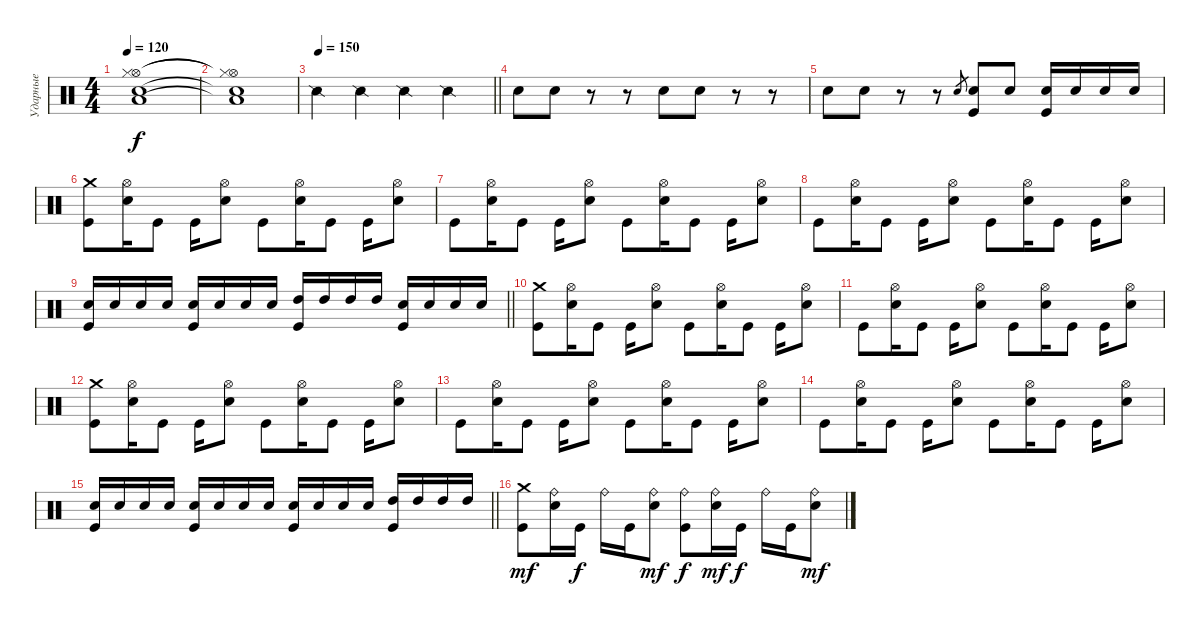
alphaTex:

\track ("Ударные" "Ударные") {instrument percussion}
\staff {score}
\articulation defaults
\ts (4 4)
\tempo 120
\clef neutral
\ks c
("Hi-Hat (open)" "Low Tom (hit)" "Snare (hit) 2" "Hi-Hat (closed)").1{dy f} |
("Hi-Hat (open)"{t} "Low Tom (hit)"{t} "Snare (hit) 2"{t} "Hi-Hat (closed)"{t}).1 |
\tempo 150
\barLineRight lightlight "Snare (side stick) 2".4 "Snare (side stick) 2".4 "Snare (side stick) 2".4 "Snare (side stick) 2".4
|
"Electric Snare (hit)".8 "Electric Snare (hit)".8 r.8 r.8 "Electric Snare (hit)".8 "Electric Snare (hit)".8 r.8 r.8 |
"Electric Snare (hit)".8 "Electric Snare (hit)".8 r.8 r.8 "Electric Snare (hit)".8{gr} ("Electric Snare (hit)" "Kick (hit)").8 "Electric Snare (hit)".8 ("Electric Snare (hit)" "Kick (hit)").16 "Electric Snare (hit)".16 "Electric Snare (hit)".16 "Electric Snare (hit)".16 |
("Crash medium (hit)" "Kick (hit)").8 ("Hi-Hat (open)" "Electric Snare (hit)").16 "Kick (hit)".8 "Kick (hit)".16 ("Hi-Hat (open)" "Electric Snare (hit)").8 "Kick (hit)".8 ("Hi-Hat (open)" "Electric Snare (hit)").16 "Kick (hit)".8 "Kick (hit)".16 ("Hi-Hat (open)" "Electric Snare (hit)").8 |
"Kick (hit)".8 ("Hi-Hat (open)" "Electric Snare (hit)").16 "Kick (hit)".8 "Kick (hit)".16 ("Hi-Hat (open)" "Electric Snare (hit)").8 "Kick (hit)".8 ("Hi-Hat (open)" "Electric Snare (hit)").16 "Kick (hit)".8 "Kick (hit)".16 ("Hi-Hat (open)" "Electric Snare (hit)").8 |
"Kick (hit)".8 ("Hi-Hat (open)" "Electric Snare (hit)").16 "Kick (hit)".8 "Kick (hit)".16 ("Hi-Hat (open)" "Electric Snare (hit)").8 "Kick (hit)".8 ("Hi-Hat (open)" "Electric Snare (hit)").16 "Kick (hit)".8 "Kick (hit)".16 ("Hi-Hat (open)" "Electric Snare (hit)").8 |
\barLineRight lightlight
("Electric Snare (hit)" "Kick (hit)").16 "Electric Snare (hit)".16 "Electric Snare (hit)".16 "Electric Snare (hit)".16 ("Electric Snare (hit)" "Kick (hit)").16 "Electric Snare (hit)".16 "Electric Snare (hit)".16 "Electric Snare (hit)".16 ("High Tom (hit)" "Kick (hit)").16 "High Tom (hit)".16 "High Tom (hit)".16 "High Tom (hit)".16 ("Electric Snare (hit)" "Kick (hit)").16 "Electric Snare (hit)".16 "Electric Snare (hit)".16 "Electric Snare (hit)".16 |
("Crash medium (hit)" "Kick (hit)").8 ("Hi-Hat (open)" "Electric Snare (hit)").16 "Kick (hit)".8 "Kick (hit)".16 ("Hi-Hat (open)" "Electric Snare (hit)").8 "Kick (hit)".8 ("Hi-Hat (open)" "Electric Snare (hit)").16 "Kick (hit)".8 "Kick (hit)".16 ("Hi-Hat (open)" "Electric Snare (hit)").8 |
"Kick (hit)".8 ("Hi-Hat (open)" "Electric Snare (hit)").16 "Kick (hit)".8 "Kick (hit)".16 ("Hi-Hat (open)" "Electric Snare (hit)").8 "Kick (hit)".8 ("Hi-Hat (open)" "Electric Snare (hit)").16 "Kick (hit)".8 "Kick (hit)".16 ("Hi-Hat (open)" "Electric Snare (hit)").8 |
("Crash medium (hit)" "Kick (hit)").8 ("Hi-Hat (open)" "Electric Snare (hit)").16 "Kick (hit)".8 "Kick (hit)".16 ("Hi-Hat (open)" "Electric Snare (hit)").8 "Kick (hit)".8 ("Hi-Hat (open)" "Electric Snare (hit)").16 "Kick (hit)".8 "Kick (hit)".16 ("Hi-Hat (open)" "Electric Snare (hit)").8 |
"Kick (hit)".8 ("Hi-Hat (open)" "Electric Snare (hit)").16 "Kick (hit)".8 "Kick (hit)".16 ("Hi-Hat (open)" "Electric Snare (hit)").8 "Kick (hit)".8 ("Hi-Hat (open)" "Electric Snare (hit)").16 "Kick (hit)".8 "Kick (hit)".16 ("Hi-Hat (open)" "Electric Snare (hit)").8 |
"Kick (hit)".8 ("Hi-Hat (open)" "Electric Snare (hit)").16 "Kick (hit)".8 "Kick (hit)".16 ("Hi-Hat (open)" "Electric Snare (hit)").8 "Kick (hit)".8 ("Hi-Hat (open)" "Electric Snare (hit)").16 "Kick (hit)".8 "Kick (hit)".16 ("Hi-Hat (open)" "Electric Snare (hit)").8 |
\barLineRight lightlight
("Electric Snare (hit)" "Kick (hit)").16 "Electric Snare (hit)".16 "Electric Snare (hit)".16 "Electric Snare (hit)".16 ("Electric Snare (hit)" "Kick (hit)").16 "Electric Snare (hit)".16 "Electric Snare (hit)".16 "Electric Snare (hit)".16 ("Electric Snare (hit)" "Kick (hit)").16 "Electric Snare (hit)".16 "Electric Snare (hit)".16 "Electric Snare (hit)".16 ("High Tom (hit)" "Kick (hit)").16 "High Tom (hit)".16 "High Tom (hit)".16 "High Tom (hit)".16 |
("Crash medium (hit)" "Kick (hit)").8{dy mf} ("Ride (bell)" "Electric Snare (hit)").16 "Kick (hit)".16{dy f} "Ride (bell)".16 "Kick (hit)".16 ("Ride (bell)" "Electric Snare (hit)").8{dy mf} ("Ride (bell)" "Kick (hit)").8{dy f} ("Ride (bell)" "Electric Snare (hit)").16{dy mf} "Kick (hit)".16{dy f} "Ride (bell)".16 "Kick (hit)".16 ("Ride (bell)" "Electric Snare (hit)").8{dy mf}
